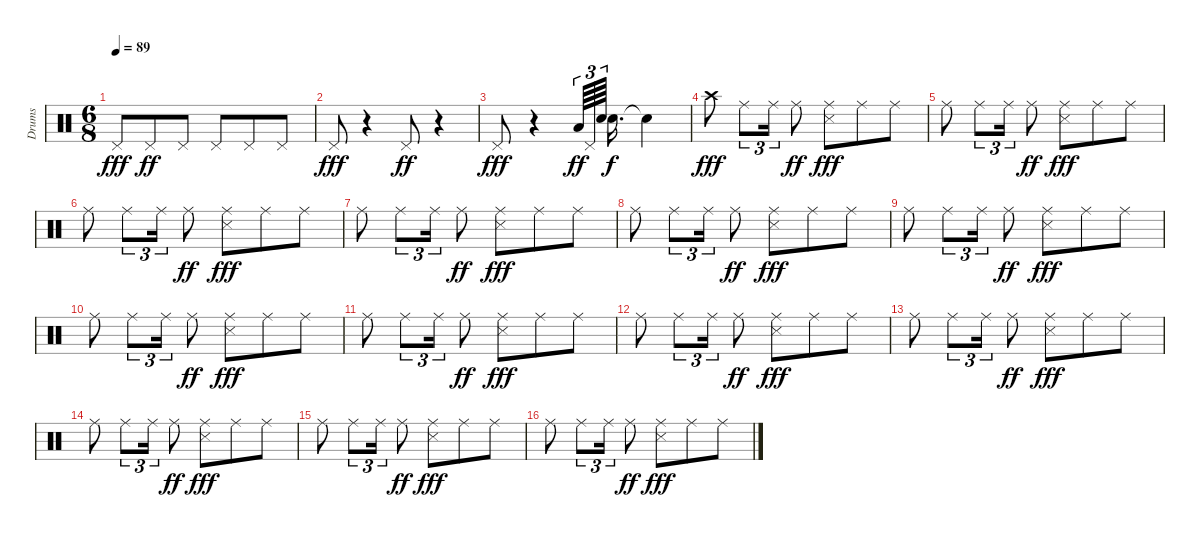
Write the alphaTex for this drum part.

\track ("Drums" "Drums") {instrument percussion}
\staff {score}
\articulation defaults
\ts (6 8)
\tempo 89
\clef neutral
\ks c "Pedal Hi-Hat (hit)".8{dy fff} "Pedal Hi-Hat (hit)".8{dy ff} "Pedal Hi-Hat (hit)".8 "Pedal Hi-Hat (hit)".8 "Pedal Hi-Hat (hit)".8 "Pedal Hi-Hat (hit)".8
|
"Pedal Hi-Hat (hit)".8{dy fff} r.4 "Pedal Hi-Hat (hit)".8{dy ff} r.4 |
"Pedal Hi-Hat (hit)".8{dy fff} r.4 "Low Floor Tom (hit)".64{tu (3 2) dy ff} "Pedal Hi-Hat (hit)".64{tu (3 2)} "Hand Clap (hit)".64{tu (3 2) beam splitsecondary} "Snare (hit)"{t}.16{d dy f} "Snare (hit)"{t}.4 |
"Crash high (hit)".8{dy fff} "Ride (middle)".8{tu (3 2)} "Ride (middle)".16{tu (3 2)} "Ride (middle)".8{dy ff} ("Ride (middle)" "Snare (side stick) 3").8{dy fff} "Ride (middle)".8 "Ride (middle)".8 |
"Ride (middle)".8 "Ride (middle)".8{tu (3 2)} "Ride (middle)".16{tu (3 2)} "Ride (middle)".8{dy ff} ("Ride (middle)" "Snare (side stick) 3").8{dy fff} "Ride (middle)".8 "Ride (middle)".8 |
"Ride (middle)".8 "Ride (middle)".8{tu (3 2)} "Ride (middle)".16{tu (3 2)} "Ride (middle)".8{dy ff} ("Ride (middle)" "Snare (side stick) 3").8{dy fff} "Ride (middle)".8 "Ride (middle)".8 |
"Ride (middle)".8 "Ride (middle)".8{tu (3 2)} "Ride (middle)".16{tu (3 2)} "Ride (middle)".8{dy ff} ("Ride (middle)" "Snare (side stick) 3").8{dy fff} "Ride (middle)".8 "Ride (middle)".8 |
"Ride (middle)".8 "Ride (middle)".8{tu (3 2)} "Ride (middle)".16{tu (3 2)} "Ride (middle)".8{dy ff} ("Ride (middle)" "Snare (side stick) 3").8{dy fff} "Ride (middle)".8 "Ride (middle)".8 |
"Ride (middle)".8 "Ride (middle)".8{tu (3 2)} "Ride (middle)".16{tu (3 2)} "Ride (middle)".8{dy ff} ("Ride (middle)" "Snare (side stick) 3").8{dy fff} "Ride (middle)".8 "Ride (middle)".8 |
"Ride (middle)".8 "Ride (middle)".8{tu (3 2)} "Ride (middle)".16{tu (3 2)} "Ride (middle)".8{dy ff} ("Ride (middle)" "Snare (side stick) 3").8{dy fff} "Ride (middle)".8 "Ride (middle)".8 |
"Ride (middle)".8 "Ride (middle)".8{tu (3 2)} "Ride (middle)".16{tu (3 2)} "Ride (middle)".8{dy ff} ("Ride (middle)" "Snare (side stick) 3").8{dy fff} "Ride (middle)".8 "Ride (middle)".8 |
"Ride (middle)".8 "Ride (middle)".8{tu (3 2)} "Ride (middle)".16{tu (3 2)} "Ride (middle)".8{dy ff} ("Ride (middle)" "Snare (side stick) 3").8{dy fff} "Ride (middle)".8 "Ride (middle)".8 |
"Ride (middle)".8 "Ride (middle)".8{tu (3 2)} "Ride (middle)".16{tu (3 2)} "Ride (middle)".8{dy ff} ("Ride (middle)" "Snare (side stick) 3").8{dy fff} "Ride (middle)".8 "Ride (middle)".8 |
"Ride (middle)".8 "Ride (middle)".8{tu (3 2)} "Ride (middle)".16{tu (3 2)} "Ride (middle)".8{dy ff} ("Ride (middle)" "Snare (side stick) 3").8{dy fff} "Ride (middle)".8 "Ride (middle)".8 |
"Ride (middle)".8 "Ride (middle)".8{tu (3 2)} "Ride (middle)".16{tu (3 2)} "Ride (middle)".8{dy ff} ("Ride (middle)" "Snare (side stick) 3").8{dy fff} "Ride (middle)".8 "Ride (middle)".8 |
"Ride (middle)".8 "Ride (middle)".8{tu (3 2)} "Ride (middle)".16{tu (3 2)} "Ride (middle)".8{dy ff} ("Ride (middle)" "Snare (side stick) 3").8{dy fff} "Ride (middle)".8 "Ride (middle)".8
